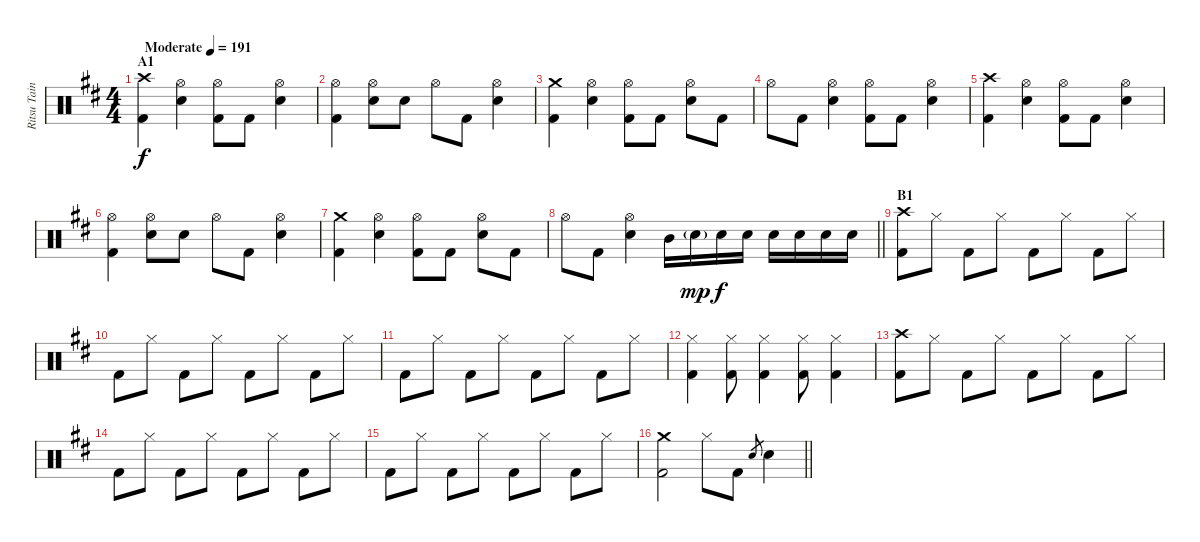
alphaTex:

\track ("Ritsu Tainaka" "Ritsu Tain") {instrument percussion}
\staff {score}
\articulation defaults
\ts (4 4)
\section ("" "A1")
\tempo (191 "Moderate")
\clef neutral
\ks d
("Crash high (hit)" "Kick (hit) 2").4{dy f} ("Hi-Hat (open)" "Electric Snare (hit)").4 ("Hi-Hat (open)" "Kick (hit) 2").8 "Kick (hit) 2".8 ("Hi-Hat (open)" "Electric Snare (hit)").4 |
("Hi-Hat (open)" "Kick (hit) 2").4 ("Hi-Hat (open)" "Electric Snare (hit)").8 "Electric Snare (hit)".8 "Hi-Hat (open)".8 "Kick (hit) 2".8 ("Hi-Hat (open)" "Electric Snare (hit)").4 |
("Crash medium (hit)" "Kick (hit) 2").4 ("Hi-Hat (open)" "Electric Snare (hit)").4 ("Hi-Hat (open)" "Kick (hit) 2").8 "Kick (hit) 2".8 ("Hi-Hat (open)" "Electric Snare (hit)").8 "Kick (hit) 2".8 |
"Hi-Hat (open)".8 "Kick (hit) 2".8 ("Hi-Hat (open)" "Electric Snare (hit)").4 ("Hi-Hat (open)" "Kick (hit) 2").8 "Kick (hit) 2".8 ("Hi-Hat (open)" "Electric Snare (hit)").4 |
("Crash high (hit)" "Kick (hit) 2").4 ("Hi-Hat (open)" "Electric Snare (hit)").4 ("Hi-Hat (open)" "Kick (hit) 2").8 "Kick (hit) 2".8 ("Hi-Hat (open)" "Electric Snare (hit)").4 |
("Hi-Hat (open)" "Kick (hit) 2").4 ("Hi-Hat (open)" "Electric Snare (hit)").8 "Electric Snare (hit)".8 "Hi-Hat (open)".8 "Kick (hit) 2".8 ("Hi-Hat (open)" "Electric Snare (hit)").4 |
("Crash medium (hit)" "Kick (hit) 2").4 ("Hi-Hat (open)" "Electric Snare (hit)").4 ("Hi-Hat (open)" "Kick (hit) 2").8 "Kick (hit) 2".8 ("Hi-Hat (open)" "Electric Snare (hit)").8 "Kick (hit) 2".8 |
\barLineRight lightlight "Hi-Hat (open)".8 "Kick (hit) 2".8
("Hi-Hat (open)" "Electric Snare (hit)").4 "Mid Tom (hit)".16 "Electric Snare (hit)"{g}.16{dy mp} "Electric Snare (hit)".16{dy f} "Electric Snare (hit)".16 "Electric Snare (hit)".16 "Electric Snare (hit)".16 "Electric Snare (hit)".16 "Electric Snare (hit)".16 |
\section ("" "B1")
("Crash high (hit)" "Kick (hit) 2").8 "Hi-Hat (closed)".8 "Kick (hit) 2".8 "Hi-Hat (closed)".8 "Kick (hit) 2".8 "Hi-Hat (closed)".8 "Kick (hit) 2".8 "Hi-Hat (closed)".8 |
"Kick (hit) 2".8 "Hi-Hat (closed)".8 "Kick (hit) 2".8 "Hi-Hat (closed)".8 "Kick (hit) 2".8 "Hi-Hat (closed)".8 "Kick (hit) 2".8 "Hi-Hat (closed)".8 |
"Kick (hit) 2".8 "Hi-Hat (closed)".8 "Kick (hit) 2".8 "Hi-Hat (closed)".8 "Kick (hit) 2".8 "Hi-Hat (closed)".8 "Kick (hit) 2".8 "Hi-Hat (closed)".8 |
("Hi-Hat (closed)" "Kick (hit) 2").4 ("Hi-Hat (closed)" "Kick (hit) 2").8 ("Hi-Hat (closed)" "Kick (hit) 2").4 ("Hi-Hat (closed)" "Kick (hit) 2").8 ("Hi-Hat (closed)" "Kick (hit) 2").4 |
("Crash high (hit)" "Kick (hit) 2").8 "Hi-Hat (closed)".8 "Kick (hit) 2".8 "Hi-Hat (closed)".8 "Kick (hit) 2".8 "Hi-Hat (closed)".8 "Kick (hit) 2".8 "Hi-Hat (closed)".8 |
"Kick (hit) 2".8 "Hi-Hat (closed)".8 "Kick (hit) 2".8 "Hi-Hat (closed)".8 "Kick (hit) 2".8 "Hi-Hat (closed)".8 "Kick (hit) 2".8 "Hi-Hat (closed)".8 |
"Kick (hit) 2".8 "Hi-Hat (closed)".8 "Kick (hit) 2".8 "Hi-Hat (closed)".8 "Kick (hit) 2".8 "Hi-Hat (closed)".8 "Kick (hit) 2".8 "Hi-Hat (closed)".8 |
\barLineRight lightlight
("Crash medium (hit)" "Kick (hit) 2").2 "Hi-Hat (closed)".8 "Kick (hit) 2".8 "Electric Snare (hit)".8{gr} "Electric Snare (hit)".4
